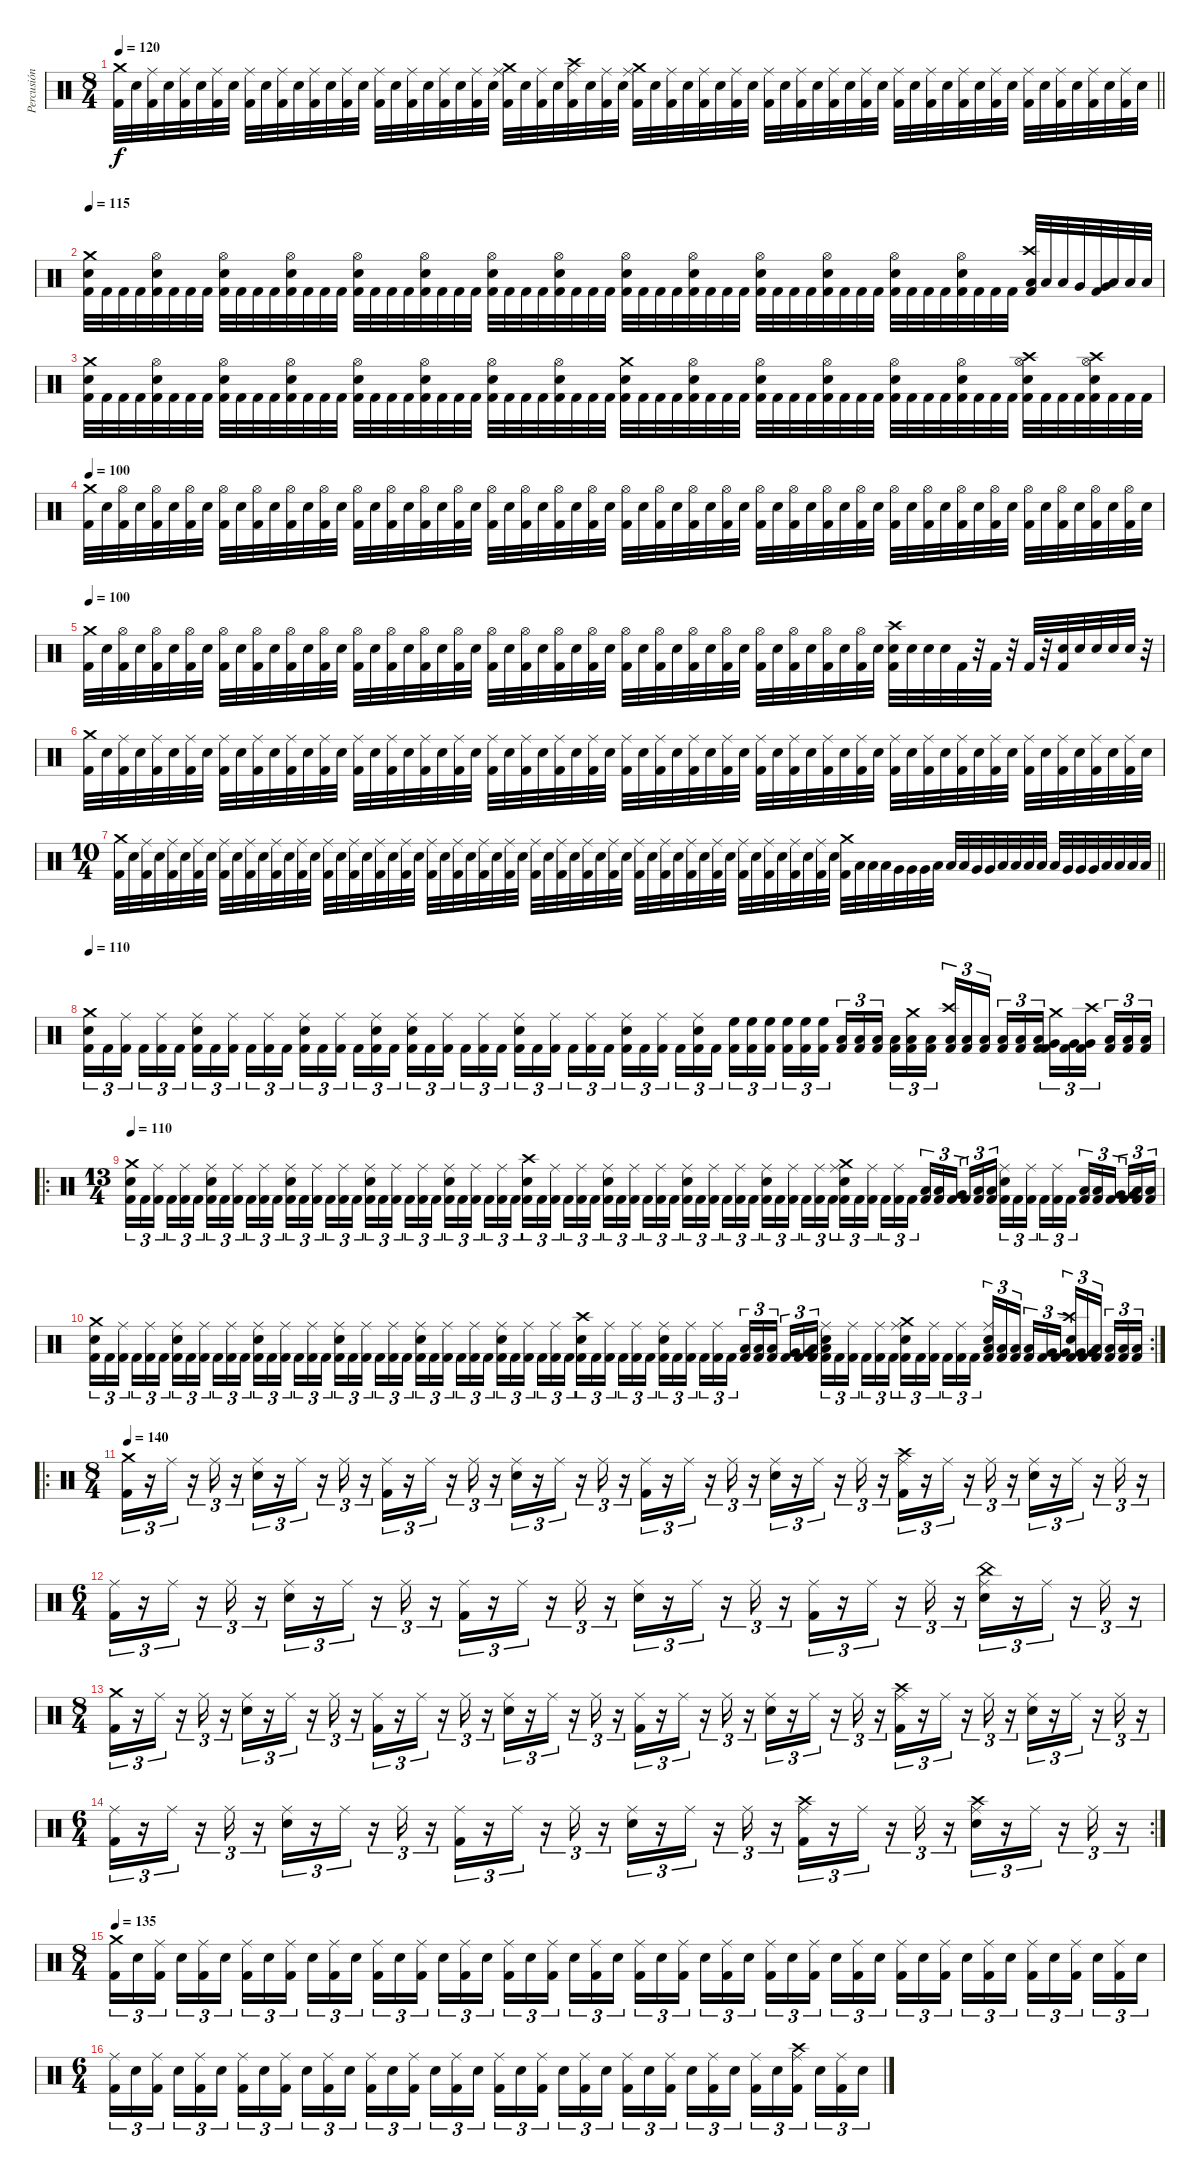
\track ("Percusión" "Percusión") {instrument percussion}
\staff {score}
\articulation defaults
\ts (8 4)
\tempo 120
\clef neutral
\barLineRight lightlight
\ks c
("Crash medium (hit)" "Kick (hit) 2").32{dy f} "Electric Snare (hit)".32 ("Ride (middle)" "Kick (hit) 2").32 "Electric Snare (hit)".32 ("Ride (middle)" "Kick (hit) 2").32 "Electric Snare (hit)".32 ("Ride (middle)" "Kick (hit) 2").32 "Electric Snare (hit)".32 ("Ride (middle)" "Kick (hit) 2").32 "Electric Snare (hit)".32 ("Ride (middle)" "Kick (hit) 2").32 "Electric Snare (hit)".32 ("Ride (middle)" "Kick (hit) 2").32 "Electric Snare (hit)".32 ("Ride (middle)" "Kick (hit) 2").32 "Electric Snare (hit)".32 ("Ride (middle)" "Kick (hit) 2").32 "Electric Snare (hit)".32 ("Ride (middle)" "Kick (hit) 2").32 "Electric Snare (hit)".32 ("Ride (middle)" "Kick (hit) 2").32 "Electric Snare (hit)".32 ("Ride (middle)" "Kick (hit) 2").32 "Electric Snare (hit)".32 ("Crash medium (hit)" "Ride (middle)" "Kick (hit) 2").32 "Electric Snare (hit)".32 ("Ride (middle)" "Kick (hit) 2").32 "Electric Snare (hit)".32 ("Crash high (hit)" "Ride (middle)" "Kick (hit) 2").32 "Electric Snare (hit)".32 ("Ride (middle)" "Kick (hit) 2").32 "Electric Snare (hit)".32 ("Crash medium (hit)" "Ride (middle)" "Kick (hit) 2").32 "Electric Snare (hit)".32 ("Ride (middle)" "Kick (hit) 2").32 "Electric Snare (hit)".32 ("Ride (middle)" "Kick (hit) 2").32 "Electric Snare (hit)".32 ("Ride (middle)" "Kick (hit) 2").32 "Electric Snare (hit)".32 ("Ride (middle)" "Kick (hit) 2").32 "Electric Snare (hit)".32 ("Ride (middle)" "Kick (hit) 2").32 "Electric Snare (hit)".32 ("Ride (middle)" "Kick (hit) 2").32 "Electric Snare (hit)".32 ("Ride (middle)" "Kick (hit) 2").32 "Electric Snare (hit)".32 ("Ride (middle)" "Kick (hit) 2").32 "Electric Snare (hit)".32 ("Ride (middle)" "Kick (hit) 2").32 "Electric Snare (hit)".32 ("Ride (middle)" "Kick (hit) 2").32 "Electric Snare (hit)".32 ("Ride (middle)" "Kick (hit) 2").32 "Electric Snare (hit)".32 ("Ride (middle)" "Kick (hit) 2").32 "Electric Snare (hit)".32 ("Ride (middle)" "Kick (hit) 2").32 "Electric Snare (hit)".32 ("Ride (middle)" "Kick (hit) 2").32 "Electric Snare (hit)".32 ("Ride (middle)" "Kick (hit) 2").32 "Electric Snare (hit)".32 |
\tempo 115
("Crash medium (hit)" "Electric Snare (hit)" "Kick (hit) 2").32 "Kick (hit) 2".32 "Kick (hit) 2".32 "Kick (hit) 2".32 ("Hi-Hat (open)" "Electric Snare (hit)" "Kick (hit) 2").32 "Kick (hit) 2".32 "Kick (hit) 2".32 "Kick (hit) 2".32 ("Hi-Hat (open)" "Electric Snare (hit)" "Kick (hit) 2").32 "Kick (hit) 2".32 "Kick (hit) 2".32 "Kick (hit) 2".32 ("Hi-Hat (open)" "Electric Snare (hit)" "Kick (hit) 2").32 "Kick (hit) 2".32 "Kick (hit) 2".32 "Kick (hit) 2".32 ("Hi-Hat (open)" "Electric Snare (hit)" "Kick (hit) 2").32 "Kick (hit) 2".32 "Kick (hit) 2".32 "Kick (hit) 2".32 ("Hi-Hat (open)" "Electric Snare (hit)" "Kick (hit) 2").32 "Kick (hit) 2".32 "Kick (hit) 2".32 "Kick (hit) 2".32 ("Hi-Hat (open)" "Electric Snare (hit)" "Kick (hit) 2").32 "Kick (hit) 2".32 "Kick (hit) 2".32 "Kick (hit) 2".32 ("Hi-Hat (open)" "Electric Snare (hit)" "Kick (hit) 2").32 "Kick (hit) 2".32 "Kick (hit) 2".32 "Kick (hit) 2".32 ("Hi-Hat (open)" "Electric Snare (hit)" "Kick (hit) 2").32 "Kick (hit) 2".32 "Kick (hit) 2".32 "Kick (hit) 2".32 ("Hi-Hat (open)" "Electric Snare (hit)" "Kick (hit) 2").32 "Kick (hit) 2".32 "Kick (hit) 2".32 "Kick (hit) 2".32 ("Hi-Hat (open)" "Electric Snare (hit)" "Kick (hit) 2").32 "Kick (hit) 2".32 "Kick (hit) 2".32 "Kick (hit) 2".32 ("Hi-Hat (open)" "Electric Snare (hit)" "Kick (hit) 2").32 "Kick (hit) 2".32 "Kick (hit) 2".32 "Kick (hit) 2".32 ("Hi-Hat (open)" "Electric Snare (hit)" "Kick (hit) 2").32 "Kick (hit) 2".32 "Kick (hit) 2".32 "Kick (hit) 2".32 ("Hi-Hat (open)" "Electric Snare (hit)" "Kick (hit) 2").32 "Kick (hit) 2".32 "Kick (hit) 2".32 "Kick (hit) 2".32 ("Crash high (hit)" "Low Tom (hit)" "Kick (hit) 2").32 "Low Tom (hit)".32 "Low Tom (hit)".32 "Very Low Tom (hit)".32 ("Very Low Tom (hit)" "Kick (hit) 2").32 "Low Floor Tom (hit)".32 "Low Floor Tom (hit)".32 "Low Floor Tom (hit)".32 |
("Crash medium (hit)" "Electric Snare (hit)" "Kick (hit) 2").32 "Kick (hit) 2".32 "Kick (hit) 2".32 "Kick (hit) 2".32 ("Hi-Hat (open)" "Electric Snare (hit)" "Kick (hit) 2").32 "Kick (hit) 2".32 "Kick (hit) 2".32 "Kick (hit) 2".32 ("Hi-Hat (open)" "Electric Snare (hit)" "Kick (hit) 2").32 "Kick (hit) 2".32 "Kick (hit) 2".32 "Kick (hit) 2".32 ("Hi-Hat (open)" "Electric Snare (hit)" "Kick (hit) 2").32 "Kick (hit) 2".32 "Kick (hit) 2".32 "Kick (hit) 2".32 ("Hi-Hat (open)" "Electric Snare (hit)" "Kick (hit) 2").32 "Kick (hit) 2".32 "Kick (hit) 2".32 "Kick (hit) 2".32 ("Hi-Hat (open)" "Electric Snare (hit)" "Kick (hit) 2").32 "Kick (hit) 2".32 "Kick (hit) 2".32 "Kick (hit) 2".32 ("Hi-Hat (open)" "Electric Snare (hit)" "Kick (hit) 2").32 "Kick (hit) 2".32 "Kick (hit) 2".32 "Kick (hit) 2".32 ("Hi-Hat (open)" "Electric Snare (hit)" "Kick (hit) 2").32 "Kick (hit) 2".32 "Kick (hit) 2".32 "Kick (hit) 2".32 ("Crash medium (hit)" "Electric Snare (hit)" "Kick (hit) 2").32 "Kick (hit) 2".32 "Kick (hit) 2".32 "Kick (hit) 2".32 ("Hi-Hat (open)" "Electric Snare (hit)" "Kick (hit) 2").32 "Kick (hit) 2".32 "Kick (hit) 2".32 "Kick (hit) 2".32 ("Hi-Hat (open)" "Electric Snare (hit)" "Kick (hit) 2").32 "Kick (hit) 2".32 "Kick (hit) 2".32 "Kick (hit) 2".32 ("Hi-Hat (open)" "Electric Snare (hit)" "Kick (hit) 2").32 "Kick (hit) 2".32 "Kick (hit) 2".32 "Kick (hit) 2".32 ("Hi-Hat (open)" "Electric Snare (hit)" "Kick (hit) 2").32 "Kick (hit) 2".32 "Kick (hit) 2".32 "Kick (hit) 2".32 ("Hi-Hat (open)" "Electric Snare (hit)" "Kick (hit) 2").32 "Kick (hit) 2".32 "Kick (hit) 2".32 "Kick (hit) 2".32 ("Crash high (hit)" "Hi-Hat (open)" "Electric Snare (hit)" "Kick (hit) 2").32 "Kick (hit) 2".32 "Kick (hit) 2".32 "Kick (hit) 2".32 ("Crash high (hit)" "Hi-Hat (open)" "Electric Snare (hit)" "Kick (hit) 2").32 "Kick (hit) 2".32 "Kick (hit) 2".32 "Kick (hit) 2".32 |
\tempo 100
("Crash medium (hit)" "Kick (hit) 2").32 "Electric Snare (hit)".32 ("Hi-Hat (open)" "Kick (hit) 2").32 "Electric Snare (hit)".32 ("Hi-Hat (open)" "Kick (hit) 2").32 "Electric Snare (hit)".32 ("Hi-Hat (open)" "Kick (hit) 2").32 "Electric Snare (hit)".32 ("Hi-Hat (open)" "Kick (hit) 2").32 "Electric Snare (hit)".32 ("Hi-Hat (open)" "Kick (hit) 2").32 "Electric Snare (hit)".32 ("Hi-Hat (open)" "Kick (hit) 2").32 "Electric Snare (hit)".32 ("Hi-Hat (open)" "Kick (hit) 2").32 "Electric Snare (hit)".32 ("Hi-Hat (open)" "Kick (hit) 2").32 "Electric Snare (hit)".32 ("Hi-Hat (open)" "Kick (hit) 2").32 "Electric Snare (hit)".32 ("Hi-Hat (open)" "Kick (hit) 2").32 "Electric Snare (hit)".32 ("Hi-Hat (open)" "Kick (hit) 2").32 "Electric Snare (hit)".32 ("Hi-Hat (open)" "Kick (hit) 2").32 "Electric Snare (hit)".32 ("Hi-Hat (open)" "Kick (hit) 2").32 "Electric Snare (hit)".32 ("Hi-Hat (open)" "Kick (hit) 2").32 "Electric Snare (hit)".32 ("Hi-Hat (open)" "Kick (hit) 2").32 "Electric Snare (hit)".32 ("Hi-Hat (open)" "Kick (hit) 2").32 "Electric Snare (hit)".32 ("Hi-Hat (open)" "Kick (hit) 2").32 "Electric Snare (hit)".32 ("Hi-Hat (open)" "Kick (hit) 2").32 "Electric Snare (hit)".32 ("Hi-Hat (open)" "Kick (hit) 2").32 "Electric Snare (hit)".32 ("Hi-Hat (open)" "Kick (hit) 2").32 "Electric Snare (hit)".32 ("Hi-Hat (open)" "Kick (hit) 2").32 "Electric Snare (hit)".32 ("Hi-Hat (open)" "Kick (hit) 2").32 "Electric Snare (hit)".32 ("Hi-Hat (open)" "Kick (hit) 2").32 "Electric Snare (hit)".32 ("Hi-Hat (open)" "Kick (hit) 2").32 "Electric Snare (hit)".32 ("Hi-Hat (open)" "Kick (hit) 2").32 "Electric Snare (hit)".32 ("Hi-Hat (open)" "Kick (hit) 2").32 "Electric Snare (hit)".32 ("Hi-Hat (open)" "Kick (hit) 2").32 "Electric Snare (hit)".32 ("Hi-Hat (open)" "Kick (hit) 2").32 "Electric Snare (hit)".32 ("Hi-Hat (open)" "Kick (hit) 2").32 "Electric Snare (hit)".32 ("Hi-Hat (open)" "Kick (hit) 2").32 "Electric Snare (hit)".32 ("Hi-Hat (open)" "Kick (hit) 2").32 "Electric Snare (hit)".32 |
\tempo 100
("Crash medium (hit)" "Kick (hit) 2").32 "Electric Snare (hit)".32 ("Hi-Hat (open)" "Kick (hit) 2").32 "Electric Snare (hit)".32 ("Hi-Hat (open)" "Kick (hit) 2").32 "Electric Snare (hit)".32 ("Hi-Hat (open)" "Kick (hit) 2").32 "Electric Snare (hit)".32 ("Hi-Hat (open)" "Kick (hit) 2").32 "Electric Snare (hit)".32 ("Hi-Hat (open)" "Kick (hit) 2").32 "Electric Snare (hit)".32 ("Hi-Hat (open)" "Kick (hit) 2").32 "Electric Snare (hit)".32 ("Hi-Hat (open)" "Kick (hit) 2").32 "Electric Snare (hit)".32 ("Hi-Hat (open)" "Kick (hit) 2").32 "Electric Snare (hit)".32 ("Hi-Hat (open)" "Kick (hit) 2").32 "Electric Snare (hit)".32 ("Hi-Hat (open)" "Kick (hit) 2").32 "Electric Snare (hit)".32 ("Hi-Hat (open)" "Kick (hit) 2").32 "Electric Snare (hit)".32 ("Hi-Hat (open)" "Kick (hit) 2").32 "Electric Snare (hit)".32 ("Hi-Hat (open)" "Kick (hit) 2").32 "Electric Snare (hit)".32 ("Hi-Hat (open)" "Kick (hit) 2").32 "Electric Snare (hit)".32 ("Hi-Hat (open)" "Kick (hit) 2").32 "Electric Snare (hit)".32 ("Hi-Hat (open)" "Kick (hit) 2").32 "Electric Snare (hit)".32 ("Hi-Hat (open)" "Kick (hit) 2").32 "Electric Snare (hit)".32 ("Hi-Hat (open)" "Kick (hit) 2").32 "Electric Snare (hit)".32 ("Hi-Hat (open)" "Kick (hit) 2").32 "Electric Snare (hit)".32 ("Hi-Hat (open)" "Kick (hit) 2").32 "Electric Snare (hit)".32 ("Hi-Hat (open)" "Kick (hit) 2").32 "Electric Snare (hit)".32 ("Hi-Hat (open)" "Kick (hit) 2").32 "Electric Snare (hit)".32 ("Hi-Hat (open)" "Kick (hit) 2").32 "Electric Snare (hit)".32 ("Crash high (hit)" "Electric Snare (hit)" "Kick (hit) 2").32 "Electric Snare (hit)".32 "Electric Snare (hit)".32 "Electric Snare (hit)".32 "Kick (hit) 2".32 r.32 "Kick (hit) 2".32 r.32 "Kick (hit) 2".32 r.32 ("Electric Snare (hit)" "Kick (hit) 2").32 "Electric Snare (hit)".32 "Electric Snare (hit)".32 "Electric Snare (hit)".32 "Electric Snare (hit)".32 r.32 |
("Crash medium (hit)" "Kick (hit) 2").32 "Electric Snare (hit)".32 ("Ride (middle)" "Kick (hit) 2").32 "Electric Snare (hit)".32 ("Ride (middle)" "Kick (hit) 2").32 "Electric Snare (hit)".32 ("Ride (middle)" "Kick (hit) 2").32 "Electric Snare (hit)".32 ("Ride (middle)" "Kick (hit) 2").32 "Electric Snare (hit)".32 ("Ride (middle)" "Kick (hit) 2").32 "Electric Snare (hit)".32 ("Ride (middle)" "Kick (hit) 2").32 "Electric Snare (hit)".32 ("Ride (middle)" "Kick (hit) 2").32 "Electric Snare (hit)".32 ("Ride (middle)" "Kick (hit) 2").32 "Electric Snare (hit)".32 ("Ride (middle)" "Kick (hit) 2").32 "Electric Snare (hit)".32 ("Ride (middle)" "Kick (hit) 2").32 "Electric Snare (hit)".32 ("Ride (middle)" "Kick (hit) 2").32 "Electric Snare (hit)".32 ("Ride (middle)" "Kick (hit) 2").32 "Electric Snare (hit)".32 ("Ride (middle)" "Kick (hit) 2").32 "Electric Snare (hit)".32 ("Ride (middle)" "Kick (hit) 2").32 "Electric Snare (hit)".32 ("Ride (middle)" "Kick (hit) 2").32 "Electric Snare (hit)".32 ("Ride (middle)" "Kick (hit) 2").32 "Electric Snare (hit)".32 ("Ride (middle)" "Kick (hit) 2").32 "Electric Snare (hit)".32 ("Ride (middle)" "Kick (hit) 2").32 "Electric Snare (hit)".32 ("Ride (middle)" "Kick (hit) 2").32 "Electric Snare (hit)".32 ("Ride (middle)" "Kick (hit) 2").32 "Electric Snare (hit)".32 ("Ride (middle)" "Kick (hit) 2").32 "Electric Snare (hit)".32 ("Ride (middle)" "Kick (hit) 2").32 "Electric Snare (hit)".32 ("Ride (middle)" "Kick (hit) 2").32 "Electric Snare (hit)".32 ("Ride (middle)" "Kick (hit) 2").32 "Electric Snare (hit)".32 ("Ride (middle)" "Kick (hit) 2").32 "Electric Snare (hit)".32 ("Ride (middle)" "Kick (hit) 2").32 "Electric Snare (hit)".32 ("Ride (middle)" "Kick (hit) 2").32 "Electric Snare (hit)".32 ("Ride (middle)" "Kick (hit) 2").32 "Electric Snare (hit)".32 ("Ride (middle)" "Kick (hit) 2").32 "Electric Snare (hit)".32 ("Ride (middle)" "Kick (hit) 2").32 "Electric Snare (hit)".32 ("Ride (middle)" "Kick (hit) 2").32 "Electric Snare (hit)".32 |
\ts (10 4)
\barLineRight lightlight
("Crash medium (hit)" "Kick (hit) 2").32 "Electric Snare (hit)".32 ("Ride (middle)" "Kick (hit) 2").32 "Electric Snare (hit)".32 ("Ride (middle)" "Kick (hit) 2").32 "Electric Snare (hit)".32 ("Ride (middle)" "Kick (hit) 2").32 "Electric Snare (hit)".32 ("Ride (middle)" "Kick (hit) 2").32 "Electric Snare (hit)".32 ("Ride (middle)" "Kick (hit) 2").32 "Electric Snare (hit)".32 ("Ride (middle)" "Kick (hit) 2").32 "Electric Snare (hit)".32 ("Ride (middle)" "Kick (hit) 2").32 "Electric Snare (hit)".32 ("Ride (middle)" "Kick (hit) 2").32 "Electric Snare (hit)".32 ("Ride (middle)" "Kick (hit) 2").32 "Electric Snare (hit)".32 ("Ride (middle)" "Kick (hit) 2").32 "Electric Snare (hit)".32 ("Ride (middle)" "Kick (hit) 2").32 "Electric Snare (hit)".32 ("Ride (middle)" "Kick (hit) 2").32 "Electric Snare (hit)".32 ("Ride (middle)" "Kick (hit) 2").32 "Electric Snare (hit)".32 ("Ride (middle)" "Kick (hit) 2").32 "Electric Snare (hit)".32 ("Ride (middle)" "Kick (hit) 2").32 "Electric Snare (hit)".32 ("Ride (middle)" "Kick (hit) 2").32 "Electric Snare (hit)".32 ("Ride (middle)" "Kick (hit) 2").32 "Electric Snare (hit)".32 ("Ride (middle)" "Kick (hit) 2").32 "Electric Snare (hit)".32 ("Ride (middle)" "Kick (hit) 2").32 "Electric Snare (hit)".32 ("Ride (middle)" "Kick (hit) 2").32 "Electric Snare (hit)".32 ("Ride (middle)" "Kick (hit) 2").32 "Electric Snare (hit)".32 ("Ride (middle)" "Kick (hit) 2").32 "Electric Snare (hit)".32 ("Ride (middle)" "Kick (hit) 2").32 "Electric Snare (hit)".32 ("Ride (middle)" "Kick (hit) 2").32 "Electric Snare (hit)".32 ("Ride (middle)" "Kick (hit) 2").32 "Electric Snare (hit)".32 ("Ride (middle)" "Kick (hit) 2").32 "Electric Snare (hit)".32 ("Ride (middle)" "Kick (hit) 2").32 "Electric Snare (hit)".32 ("Crash medium (hit)" "Kick (hit) 2").32 "Low Tom (hit)".32 "Low Tom (hit)".32 "Low Tom (hit)".32 "Very Low Tom (hit)".32 "Very Low Tom (hit)".32 "Very Low Tom (hit)".32 "Low Floor Tom (hit)".32 "Low Floor Tom (hit)".32 "Low Floor Tom (hit)".32 "Very Low Tom (hit)".32 "Very Low Tom (hit)".32 "Low Floor Tom (hit)".32 "Low Floor Tom (hit)".32 "Low Tom (hit)".32 "Low Tom (hit)".32 "Low Tom (hit)".32 "Very Low Tom (hit)".32 "Very Low Tom (hit)".32 "Very Low Tom (hit)".32 "Low Floor Tom (hit)".32 "Low Floor Tom (hit)".32 "Low Floor Tom (hit)".32 "Low Floor Tom (hit)".32 |
\tempo 110
("Crash medium (hit)" "Electric Snare (hit)" "Kick (hit) 2").16{tu (3 2)} "Kick (hit) 2".16{tu (3 2)} ("Ride (middle)" "Kick (hit) 2").16{tu (3 2) beam splitsecondary} "Kick (hit) 2".16{tu (3 2)} ("Ride (middle)" "Kick (hit) 2").16{tu (3 2)} "Kick (hit) 2".16{tu (3 2)} ("Ride (middle)" "Electric Snare (hit)" "Kick (hit) 2").16{tu (3 2)} "Kick (hit) 2".16{tu (3 2)} ("Ride (middle)" "Kick (hit) 2").16{tu (3 2) beam splitsecondary} "Kick (hit) 2".16{tu (3 2)} ("Ride (middle)" "Kick (hit) 2").16{tu (3 2)} "Kick (hit) 2".16{tu (3 2)} ("Ride (middle)" "Electric Snare (hit)" "Kick (hit) 2").16{tu (3 2)} "Kick (hit) 2".16{tu (3 2)} ("Ride (middle)" "Kick (hit) 2").16{tu (3 2) beam splitsecondary} "Kick (hit) 2".16{tu (3 2)} ("Ride (middle)" "Electric Snare (hit)" "Kick (hit) 2").16{tu (3 2)} "Kick (hit) 2".16{tu (3 2)} ("Ride (middle)" "Electric Snare (hit)" "Kick (hit) 2").16{tu (3 2)} "Kick (hit) 2".16{tu (3 2)} ("Ride (middle)" "Kick (hit) 2").16{tu (3 2) beam splitsecondary} "Kick (hit) 2".16{tu (3 2)} ("Ride (middle)" "Kick (hit) 2").16{tu (3 2)} "Kick (hit) 2".16{tu (3 2)} ("Ride (middle)" "Electric Snare (hit)" "Kick (hit) 2").16{tu (3 2)} "Kick (hit) 2".16{tu (3 2)} ("Ride (middle)" "Kick (hit) 2").16{tu (3 2) beam splitsecondary} "Kick (hit) 2".16{tu (3 2)} ("Ride (middle)" "Kick (hit) 2").16{tu (3 2)} "Kick (hit) 2".16{tu (3 2)} ("Ride (middle)" "Electric Snare (hit)" "Kick (hit) 2").16{tu (3 2)} "Kick (hit) 2".16{tu (3 2)} ("Ride (middle)" "Kick (hit) 2").16{tu (3 2) beam splitsecondary} "Kick (hit) 2".16{tu (3 2)} ("Ride (middle)" "Electric Snare (hit)" "Kick (hit) 2").16{tu (3 2)} "Kick (hit) 2".16{tu (3 2)} ("High Floor Tom (hit)" "Kick (hit) 2").16{tu (3 2)} ("High Floor Tom (hit)" "Kick (hit) 2").16{tu (3 2)} ("High Floor Tom (hit)" "Kick (hit) 2").16{tu (3 2) beam splitsecondary} ("High Floor Tom (hit)" "Kick (hit) 2").16{tu (3 2)} ("High Floor Tom (hit)" "Kick (hit) 2").16{tu (3 2)} ("High Floor Tom (hit)" "Kick (hit) 2").16{tu (3 2)} ("Low Tom (hit)" "Kick (hit) 2").16{tu (3 2)} ("Low Tom (hit)" "Kick (hit) 2").16{tu (3 2)} ("Low Tom (hit)" "Kick (hit) 2").16{tu (3 2) beam splitsecondary} ("Low Tom (hit)" "Kick (hit) 2").16{tu (3 2)} ("Crash medium (hit)" "Low Floor Tom (hit)" "Kick (hit) 2").16{tu (3 2)} ("Low Floor Tom (hit)" "Kick (hit) 2").16{tu (3 2)} ("Crash high (hit)" "Low Floor Tom (hit)" "Kick (hit) 2").16{tu (3 2)} ("Low Floor Tom (hit)" "Kick (hit) 2").16{tu (3 2)} ("Low Tom (hit)" "Kick (hit) 2").16{tu (3 2) beam splitsecondary} ("Low Tom (hit)" "Kick (hit) 2").16{tu (3 2)} ("Low Tom (hit)" "Kick (hit) 2").16{tu (3 2)} ("Low Tom (hit)" "Kick (hit) 2").16{tu (3 2)} ("Crash medium (hit)" "Very Low Tom (hit)" "Kick (hit) 2").16{tu (3 2)} ("Very Low Tom (hit)" "Kick (hit) 2").16{tu (3 2)} ("Crash high (hit)" "Very Low Tom (hit)" "Kick (hit) 2").16{tu (3 2) beam splitsecondary} ("Low Floor Tom (hit)" "Kick (hit) 2").16{tu (3 2)} ("Low Floor Tom (hit)" "Kick (hit) 2").16{tu (3 2)} ("Low Floor Tom (hit)" "Kick (hit) 2").16{tu (3 2)} |
\ro
\ts (13 4)
\tempo 110
("Crash medium (hit)" "Electric Snare (hit)" "Kick (hit) 2").16{tu (3 2)} "Kick (hit) 2".16{tu (3 2)} ("Ride (middle)" "Kick (hit) 2").16{tu (3 2) beam splitsecondary} "Kick (hit) 2".16{tu (3 2)} ("Ride (middle)" "Kick (hit) 2").16{tu (3 2)} "Kick (hit) 2".16{tu (3 2)} ("Ride (middle)" "Electric Snare (hit)" "Kick (hit) 2").16{tu (3 2)} "Kick (hit) 2".16{tu (3 2)} ("Ride (middle)" "Kick (hit) 2").16{tu (3 2) beam splitsecondary} "Kick (hit) 2".16{tu (3 2)} ("Ride (middle)" "Kick (hit) 2").16{tu (3 2)} "Kick (hit) 2".16{tu (3 2)} ("Ride (middle)" "Electric Snare (hit)" "Kick (hit) 2").16{tu (3 2)} "Kick (hit) 2".16{tu (3 2)} ("Ride (middle)" "Kick (hit) 2").16{tu (3 2) beam splitsecondary} "Kick (hit) 2".16{tu (3 2)} ("Ride (middle)" "Kick (hit) 2").16{tu (3 2)} "Kick (hit) 2".16{tu (3 2)} ("Ride (middle)" "Electric Snare (hit)" "Kick (hit) 2").16{tu (3 2)} "Kick (hit) 2".16{tu (3 2)} ("Ride (middle)" "Kick (hit) 2").16{tu (3 2) beam splitsecondary} "Kick (hit) 2".16{tu (3 2)} ("Ride (middle)" "Kick (hit) 2").16{tu (3 2)} "Kick (hit) 2".16{tu (3 2)} ("Ride (middle)" "Electric Snare (hit)" "Kick (hit) 2").16{tu (3 2)} "Kick (hit) 2".16{tu (3 2)} ("Ride (middle)" "Kick (hit) 2").16{tu (3 2) beam splitsecondary} "Kick (hit) 2".16{tu (3 2)} ("Ride (middle)" "Kick (hit) 2").16{tu (3 2)} "Kick (hit) 2".16{tu (3 2)} ("Crash high (hit)" "Electric Snare (hit)" "Kick (hit) 2").16{tu (3 2)} "Kick (hit) 2".16{tu (3 2)} ("Ride (middle)" "Kick (hit) 2").16{tu (3 2) beam splitsecondary} "Kick (hit) 2".16{tu (3 2)} ("Ride (middle)" "Kick (hit) 2").16{tu (3 2)} "Kick (hit) 2".16{tu (3 2)} ("Ride (middle)" "Electric Snare (hit)" "Kick (hit) 2").16{tu (3 2)} "Kick (hit) 2".16{tu (3 2)} ("Ride (middle)" "Kick (hit) 2").16{tu (3 2) beam splitsecondary} "Kick (hit) 2".16{tu (3 2)} ("Ride (middle)" "Kick (hit) 2").16{tu (3 2)} "Kick (hit) 2".16{tu (3 2)} ("Ride (middle)" "Electric Snare (hit)" "Kick (hit) 2").16{tu (3 2)} "Kick (hit) 2".16{tu (3 2)} ("Ride (middle)" "Kick (hit) 2").16{tu (3 2) beam splitsecondary} "Kick (hit) 2".16{tu (3 2)} ("Ride (middle)" "Kick (hit) 2").16{tu (3 2)} "Kick (hit) 2".16{tu (3 2)} ("Ride (middle)" "Electric Snare (hit)" "Kick (hit) 2").16{tu (3 2)} "Kick (hit) 2".16{tu (3 2)} ("Ride (middle)" "Kick (hit) 2").16{tu (3 2) beam splitsecondary} "Kick (hit) 2".16{tu (3 2)} ("Ride (middle)" "Kick (hit) 2").16{tu (3 2)} "Kick (hit) 2".16{tu (3 2)} ("Crash medium (hit)" "Ride (middle)" "Electric Snare (hit)" "Kick (hit) 2").16{tu (3 2)} "Kick (hit) 2".16{tu (3 2)} ("Ride (middle)" "Kick (hit) 2").16{tu (3 2) beam splitsecondary} "Kick (hit) 2".16{tu (3 2)} ("Ride (middle)" "Kick (hit) 2").16{tu (3 2)} "Kick (hit) 2".16{tu (3 2)} ("Low Tom (hit)" "Kick (hit) 2").16{tu (3 2)} ("Low Tom (hit)" "Kick (hit) 2").16{tu (3 2)} ("Very Low Tom (hit)" "Kick (hit) 2").16{tu (3 2) beam splitsecondary} "Kick (hit) 2".16{tu (3 2)} ("Low Floor Tom (hit)" "Kick (hit) 2").16{tu (3 2)} ("Low Floor Tom (hit)" "Kick (hit) 2").16{tu (3 2)} ("Ride (middle)" "Electric Snare (hit)" "Kick (hit) 2").16{tu (3 2)} "Kick (hit) 2".16{tu (3 2)} ("Ride (middle)" "Kick (hit) 2").16{tu (3 2) beam splitsecondary} "Kick (hit) 2".16{tu (3 2)} ("Ride (middle)" "Kick (hit) 2").16{tu (3 2)} "Kick (hit) 2".16{tu (3 2)} ("Low Tom (hit)" "Kick (hit) 2").16{tu (3 2)} ("Low Tom (hit)" "Kick (hit) 2").16{tu (3 2)} ("Very Low Tom (hit)" "Kick (hit) 2").16{tu (3 2) beam splitsecondary} ("Very Low Tom (hit)" "Kick (hit) 2").16{tu (3 2)} ("Low Floor Tom (hit)" "Kick (hit) 2").16{tu (3 2)} ("Low Floor Tom (hit)" "Kick (hit) 2").16{tu (3 2)} |
\rc 2
("Crash medium (hit)" "Electric Snare (hit)" "Kick (hit) 2").16{tu (3 2)} "Kick (hit) 2".16{tu (3 2)} ("Ride (middle)" "Kick (hit) 2").16{tu (3 2) beam splitsecondary} "Kick (hit) 2".16{tu (3 2)} ("Ride (middle)" "Kick (hit) 2").16{tu (3 2)} "Kick (hit) 2".16{tu (3 2)} ("Ride (middle)" "Electric Snare (hit)" "Kick (hit) 2").16{tu (3 2)} "Kick (hit) 2".16{tu (3 2)} ("Ride (middle)" "Kick (hit) 2").16{tu (3 2) beam splitsecondary} "Kick (hit) 2".16{tu (3 2)} ("Ride (middle)" "Kick (hit) 2").16{tu (3 2)} "Kick (hit) 2".16{tu (3 2)} ("Ride (middle)" "Electric Snare (hit)" "Kick (hit) 2").16{tu (3 2)} "Kick (hit) 2".16{tu (3 2)} ("Ride (middle)" "Kick (hit) 2").16{tu (3 2) beam splitsecondary} "Kick (hit) 2".16{tu (3 2)} ("Ride (middle)" "Kick (hit) 2").16{tu (3 2)} "Kick (hit) 2".16{tu (3 2)} ("Ride (middle)" "Electric Snare (hit)" "Kick (hit) 2").16{tu (3 2)} "Kick (hit) 2".16{tu (3 2)} ("Ride (middle)" "Kick (hit) 2").16{tu (3 2) beam splitsecondary} "Kick (hit) 2".16{tu (3 2)} ("Ride (middle)" "Kick (hit) 2").16{tu (3 2)} "Kick (hit) 2".16{tu (3 2)} ("Ride (middle)" "Electric Snare (hit)" "Kick (hit) 2").16{tu (3 2)} "Kick (hit) 2".16{tu (3 2)} ("Ride (middle)" "Kick (hit) 2").16{tu (3 2) beam splitsecondary} "Kick (hit) 2".16{tu (3 2)} ("Ride (middle)" "Kick (hit) 2").16{tu (3 2)} "Kick (hit) 2".16{tu (3 2)} ("Ride (middle)" "Electric Snare (hit)" "Kick (hit) 2").16{tu (3 2)} "Kick (hit) 2".16{tu (3 2)} ("Ride (middle)" "Kick (hit) 2").16{tu (3 2) beam splitsecondary} "Kick (hit) 2".16{tu (3 2)} ("Ride (middle)" "Kick (hit) 2").16{tu (3 2)} "Kick (hit) 2".16{tu (3 2)} ("Crash high (hit)" "Electric Snare (hit)" "Kick (hit) 2").16{tu (3 2)} "Kick (hit) 2".16{tu (3 2)} ("Ride (middle)" "Kick (hit) 2").16{tu (3 2) beam splitsecondary} "Kick (hit) 2".16{tu (3 2)} ("Ride (middle)" "Kick (hit) 2").16{tu (3 2)} "Kick (hit) 2".16{tu (3 2)} ("Ride (middle)" "Electric Snare (hit)" "Kick (hit) 2").16{tu (3 2)} "Kick (hit) 2".16{tu (3 2)} ("Ride (middle)" "Kick (hit) 2").16{tu (3 2) beam splitsecondary} "Kick (hit) 2".16{tu (3 2)} ("Ride (middle)" "Kick (hit) 2").16{tu (3 2)} "Kick (hit) 2".16{tu (3 2)} ("Low Tom (hit)" "Kick (hit) 2").16{tu (3 2)} ("Low Tom (hit)" "Kick (hit) 2").16{tu (3 2)} ("Low Tom (hit)" "Kick (hit) 2").16{tu (3 2) beam splitsecondary} ("Very Low Tom (hit)" "Kick (hit) 2").16{tu (3 2)} ("Very Low Tom (hit)" "Kick (hit) 2").16{tu (3 2)} ("Low Floor Tom (hit)" "Kick (hit) 2").16{tu (3 2)} ("Ride (middle)" "Low Floor Tom (hit)" "Electric Snare (hit)" "Kick (hit) 2").16{tu (3 2)} "Kick (hit) 2".16{tu (3 2)} ("Ride (middle)" "Kick (hit) 2").16{tu (3 2) beam splitsecondary} "Kick (hit) 2".16{tu (3 2)} ("Ride (middle)" "Kick (hit) 2").16{tu (3 2)} "Kick (hit) 2".16{tu (3 2)} ("Crash medium (hit)" "Ride (middle)" "Electric Snare (hit)" "Kick (hit) 2").16{tu (3 2)} "Kick (hit) 2".16{tu (3 2)} ("Ride (middle)" "Kick (hit) 2").16{tu (3 2) beam splitsecondary} "Kick (hit) 2".16{tu (3 2)} ("Ride (middle)" "Kick (hit) 2").16{tu (3 2)} "Kick (hit) 2".16{tu (3 2)} ("Low Tom (hit)" "Ride (middle)" "Electric Snare (hit)" "Kick (hit) 2").16{tu (3 2)} ("Low Tom (hit)" "Kick (hit) 2").16{tu (3 2)} ("Low Tom (hit)" "Kick (hit) 2").16{tu (3 2) beam splitsecondary} ("Low Tom (hit)" "Kick (hit) 2").16{tu (3 2)} ("Very Low Tom (hit)" "Kick (hit) 2").16{tu (3 2)} ("Very Low Tom (hit)" "Kick (hit) 2").16{tu (3 2)} ("Crash high (hit)" "Very Low Tom (hit)" "Electric Snare (hit)" "Kick (hit) 2").16{tu (3 2)} ("Very Low Tom (hit)" "Kick (hit) 2").16{tu (3 2)} ("Low Floor Tom (hit)" "Kick (hit) 2").16{tu (3 2) beam splitsecondary} ("Low Floor Tom (hit)" "Kick (hit) 2").16{tu (3 2)} ("Low Floor Tom (hit)" "Kick (hit) 2").16{tu (3 2)} ("Low Floor Tom (hit)" "Kick (hit) 2").16{tu (3 2)} |
\ro
\ts (8 4)
\tempo 140
("Crash medium (hit)" "Kick (hit) 2").16{tu (3 2)} r.16{tu (3 2)} "Ride (middle)".16{tu (3 2)} r.16{tu (3 2)} "Ride (middle)".16{tu (3 2)} r.16{tu (3 2)} ("Ride (middle)" "Electric Snare (hit)").16{tu (3 2)} r.16{tu (3 2)} "Ride (middle)".16{tu (3 2)} r.16{tu (3 2)} "Ride (middle)".16{tu (3 2)} r.16{tu (3 2)} ("Ride (middle)" "Kick (hit) 2").16{tu (3 2)} r.16{tu (3 2)} "Ride (middle)".16{tu (3 2)} r.16{tu (3 2)} "Ride (middle)".16{tu (3 2)} r.16{tu (3 2)} ("Ride (middle)" "Electric Snare (hit)").16{tu (3 2)} r.16{tu (3 2)} "Ride (middle)".16{tu (3 2)} r.16{tu (3 2)} "Ride (middle)".16{tu (3 2)} r.16{tu (3 2)} ("Ride (middle)" "Kick (hit) 2").16{tu (3 2)} r.16{tu (3 2)} "Ride (middle)".16{tu (3 2)} r.16{tu (3 2)} "Ride (middle)".16{tu (3 2)} r.16{tu (3 2)} ("Ride (middle)" "Electric Snare (hit)").16{tu (3 2)} r.16{tu (3 2)} "Ride (middle)".16{tu (3 2)} r.16{tu (3 2)} "Ride (middle)".16{tu (3 2)} r.16{tu (3 2)} ("Crash high (hit)" "Ride (middle)" "Kick (hit) 2").16{tu (3 2)} r.16{tu (3 2)} "Ride (middle)".16{tu (3 2)} r.16{tu (3 2)} "Ride (middle)".16{tu (3 2)} r.16{tu (3 2)} ("Ride (middle)" "Electric Snare (hit)").16{tu (3 2)} r.16{tu (3 2)} "Ride (middle)".16{tu (3 2)} r.16{tu (3 2)} "Ride (middle)".16{tu (3 2)} r.16{tu (3 2)} |
\ts (6 4)
("Ride (middle)" "Kick (hit) 2").16{tu (3 2)} r.16{tu (3 2)} "Ride (middle)".16{tu (3 2)} r.16{tu (3 2)} "Ride (middle)".16{tu (3 2)} r.16{tu (3 2)} ("Ride (middle)" "Electric Snare (hit)").16{tu (3 2)} r.16{tu (3 2)} "Ride (middle)".16{tu (3 2)} r.16{tu (3 2)} "Ride (middle)".16{tu (3 2)} r.16{tu (3 2)} ("Ride (middle)" "Kick (hit) 2").16{tu (3 2)} r.16{tu (3 2)} "Ride (middle)".16{tu (3 2)} r.16{tu (3 2)} "Ride (middle)".16{tu (3 2)} r.16{tu (3 2)} ("Ride (middle)" "Electric Snare (hit)").16{tu (3 2)} r.16{tu (3 2)} "Ride (middle)".16{tu (3 2)} r.16{tu (3 2)} "Ride (middle)".16{tu (3 2)} r.16{tu (3 2)} ("Ride (middle)" "Kick (hit) 2").16{tu (3 2)} r.16{tu (3 2)} "Ride (middle)".16{tu (3 2)} r.16{tu (3 2)} "Ride (middle)".16{tu (3 2)} r.16{tu (3 2)} ("China (hit)" "Ride (middle)" "Electric Snare (hit)").16{tu (3 2)} r.16{tu (3 2)} "Ride (middle)".16{tu (3 2)} r.16{tu (3 2)} "Ride (middle)".16{tu (3 2)} r.16{tu (3 2)} |
\ts (8 4)
("Crash medium (hit)" "Kick (hit) 2").16{tu (3 2)} r.16{tu (3 2)} "Ride (middle)".16{tu (3 2)} r.16{tu (3 2)} "Ride (middle)".16{tu (3 2)} r.16{tu (3 2)} ("Ride (middle)" "Electric Snare (hit)").16{tu (3 2)} r.16{tu (3 2)} "Ride (middle)".16{tu (3 2)} r.16{tu (3 2)} "Ride (middle)".16{tu (3 2)} r.16{tu (3 2)} ("Ride (middle)" "Kick (hit) 2").16{tu (3 2)} r.16{tu (3 2)} "Ride (middle)".16{tu (3 2)} r.16{tu (3 2)} "Ride (middle)".16{tu (3 2)} r.16{tu (3 2)} ("Ride (middle)" "Electric Snare (hit)").16{tu (3 2)} r.16{tu (3 2)} "Ride (middle)".16{tu (3 2)} r.16{tu (3 2)} "Ride (middle)".16{tu (3 2)} r.16{tu (3 2)} ("Ride (middle)" "Kick (hit) 2").16{tu (3 2)} r.16{tu (3 2)} "Ride (middle)".16{tu (3 2)} r.16{tu (3 2)} "Ride (middle)".16{tu (3 2)} r.16{tu (3 2)} ("Ride (middle)" "Electric Snare (hit)").16{tu (3 2)} r.16{tu (3 2)} "Ride (middle)".16{tu (3 2)} r.16{tu (3 2)} "Ride (middle)".16{tu (3 2)} r.16{tu (3 2)} ("Crash high (hit)" "Ride (middle)" "Kick (hit) 2").16{tu (3 2)} r.16{tu (3 2)} "Ride (middle)".16{tu (3 2)} r.16{tu (3 2)} "Ride (middle)".16{tu (3 2)} r.16{tu (3 2)} ("Ride (middle)" "Electric Snare (hit)").16{tu (3 2)} r.16{tu (3 2)} "Ride (middle)".16{tu (3 2)} r.16{tu (3 2)} "Ride (middle)".16{tu (3 2)} r.16{tu (3 2)} |
\rc 2
\ts (6 4)
("Ride (middle)" "Kick (hit) 2").16{tu (3 2)} r.16{tu (3 2)} "Ride (middle)".16{tu (3 2)} r.16{tu (3 2)} "Ride (middle)".16{tu (3 2)} r.16{tu (3 2)} ("Ride (middle)" "Electric Snare (hit)").16{tu (3 2)} r.16{tu (3 2)} "Ride (middle)".16{tu (3 2)} r.16{tu (3 2)} "Ride (middle)".16{tu (3 2)} r.16{tu (3 2)} ("Ride (middle)" "Kick (hit) 2").16{tu (3 2)} r.16{tu (3 2)} "Ride (middle)".16{tu (3 2)} r.16{tu (3 2)} "Ride (middle)".16{tu (3 2)} r.16{tu (3 2)} ("Ride (middle)" "Electric Snare (hit)").16{tu (3 2)} r.16{tu (3 2)} "Ride (middle)".16{tu (3 2)} r.16{tu (3 2)} "Ride (middle)".16{tu (3 2)} r.16{tu (3 2)} ("Crash high (hit)" "Ride (middle)" "Kick (hit) 2").16{tu (3 2)} r.16{tu (3 2)} "Ride (middle)".16{tu (3 2)} r.16{tu (3 2)} "Ride (middle)".16{tu (3 2)} r.16{tu (3 2)} ("Crash high (hit)" "Ride (middle)" "Electric Snare (hit)").16{tu (3 2)} r.16{tu (3 2)} "Ride (middle)".16{tu (3 2)} r.16{tu (3 2)} "Ride (middle)".16{tu (3 2)} r.16{tu (3 2)} |
\ts (8 4)
\tempo 135
("Crash medium (hit)" "Kick (hit) 2").16{tu (3 2)} "Electric Snare (hit)".16{tu (3 2)} ("Ride (middle)" "Kick (hit) 2").16{tu (3 2) beam splitsecondary} "Electric Snare (hit)".16{tu (3 2)} ("Ride (middle)" "Kick (hit) 2").16{tu (3 2)} "Electric Snare (hit)".16{tu (3 2)} ("Ride (middle)" "Kick (hit) 2").16{tu (3 2)} "Electric Snare (hit)".16{tu (3 2)} ("Ride (middle)" "Kick (hit) 2").16{tu (3 2) beam splitsecondary} "Electric Snare (hit)".16{tu (3 2)} ("Ride (middle)" "Kick (hit) 2").16{tu (3 2)} "Electric Snare (hit)".16{tu (3 2)} ("Ride (middle)" "Kick (hit) 2").16{tu (3 2)} "Electric Snare (hit)".16{tu (3 2)} ("Ride (middle)" "Kick (hit) 2").16{tu (3 2) beam splitsecondary} "Electric Snare (hit)".16{tu (3 2)} ("Ride (middle)" "Kick (hit) 2").16{tu (3 2)} "Electric Snare (hit)".16{tu (3 2)} ("Ride (middle)" "Kick (hit) 2").16{tu (3 2)} "Electric Snare (hit)".16{tu (3 2)} ("Ride (middle)" "Kick (hit) 2").16{tu (3 2) beam splitsecondary} "Electric Snare (hit)".16{tu (3 2)} ("Ride (middle)" "Kick (hit) 2").16{tu (3 2)} "Electric Snare (hit)".16{tu (3 2)} ("Ride (middle)" "Kick (hit) 2").16{tu (3 2)} "Electric Snare (hit)".16{tu (3 2)} ("Ride (middle)" "Kick (hit) 2").16{tu (3 2) beam splitsecondary} "Electric Snare (hit)".16{tu (3 2)} ("Ride (middle)" "Kick (hit) 2").16{tu (3 2)} "Electric Snare (hit)".16{tu (3 2)} ("Ride (middle)" "Kick (hit) 2").16{tu (3 2)} "Electric Snare (hit)".16{tu (3 2)} ("Ride (middle)" "Kick (hit) 2").16{tu (3 2) beam splitsecondary} "Electric Snare (hit)".16{tu (3 2)} ("Ride (middle)" "Kick (hit) 2").16{tu (3 2)} "Electric Snare (hit)".16{tu (3 2)} ("Ride (middle)" "Kick (hit) 2").16{tu (3 2)} "Electric Snare (hit)".16{tu (3 2)} ("Ride (middle)" "Kick (hit) 2").16{tu (3 2) beam splitsecondary} "Electric Snare (hit)".16{tu (3 2)} ("Ride (middle)" "Kick (hit) 2").16{tu (3 2)} "Electric Snare (hit)".16{tu (3 2)} ("Ride (middle)" "Kick (hit) 2").16{tu (3 2)} "Electric Snare (hit)".16{tu (3 2)} ("Ride (middle)" "Kick (hit) 2").16{tu (3 2) beam splitsecondary} "Electric Snare (hit)".16{tu (3 2)} ("Ride (middle)" "Kick (hit) 2").16{tu (3 2)} "Electric Snare (hit)".16{tu (3 2)} |
\ts (6 4)
("Ride (middle)" "Kick (hit) 2").16{tu (3 2)} "Electric Snare (hit)".16{tu (3 2)} ("Ride (middle)" "Kick (hit) 2").16{tu (3 2) beam splitsecondary} "Electric Snare (hit)".16{tu (3 2)} ("Ride (middle)" "Kick (hit) 2").16{tu (3 2)} "Electric Snare (hit)".16{tu (3 2) beam splitsecondary} ("Ride (middle)" "Kick (hit) 2").16{tu (3 2)} "Electric Snare (hit)".16{tu (3 2)} ("Ride (middle)" "Kick (hit) 2").16{tu (3 2) beam splitsecondary} "Electric Snare (hit)".16{tu (3 2)} ("Ride (middle)" "Kick (hit) 2").16{tu (3 2)} "Electric Snare (hit)".16{tu (3 2) beam splitsecondary} ("Ride (middle)" "Kick (hit) 2").16{tu (3 2)} "Electric Snare (hit)".16{tu (3 2)} ("Ride (middle)" "Kick (hit) 2").16{tu (3 2) beam splitsecondary} "Electric Snare (hit)".16{tu (3 2)} ("Ride (middle)" "Kick (hit) 2").16{tu (3 2)} "Electric Snare (hit)".16{tu (3 2)} ("Ride (middle)" "Kick (hit) 2").16{tu (3 2)} "Electric Snare (hit)".16{tu (3 2)} ("Ride (middle)" "Kick (hit) 2").16{tu (3 2) beam splitsecondary} "Electric Snare (hit)".16{tu (3 2)} ("Ride (middle)" "Kick (hit) 2").16{tu (3 2)} "Electric Snare (hit)".16{tu (3 2) beam splitsecondary} ("Ride (middle)" "Kick (hit) 2").16{tu (3 2)} "Electric Snare (hit)".16{tu (3 2)} ("Ride (middle)" "Kick (hit) 2").16{tu (3 2) beam splitsecondary} "Electric Snare (hit)".16{tu (3 2)} ("Ride (middle)" "Kick (hit) 2").16{tu (3 2)} "Electric Snare (hit)".16{tu (3 2) beam splitsecondary} ("Ride (middle)" "Kick (hit) 2").16{tu (3 2)} "Electric Snare (hit)".16{tu (3 2)} ("Crash high (hit)" "Ride (middle)" "Kick (hit) 2").16{tu (3 2) beam splitsecondary} "Electric Snare (hit)".16{tu (3 2)} ("Ride (middle)" "Kick (hit) 2").16{tu (3 2)} "Electric Snare (hit)".16{tu (3 2)}
